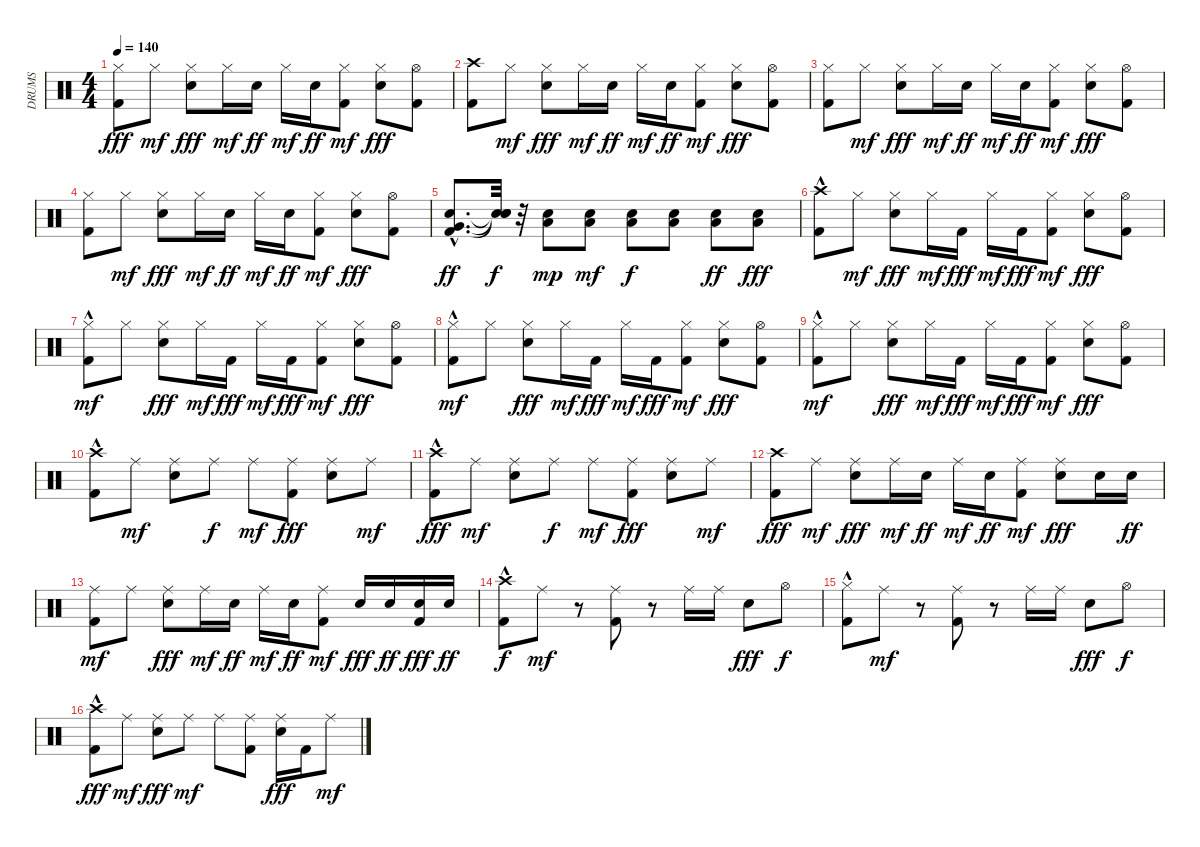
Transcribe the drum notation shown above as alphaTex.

\track ("DRUMS" "DRUMS") {instrument percussion}
\staff {score}
\articulation defaults
\ts (4 4)
\tempo 140
\clef neutral
\ks c
("Kick (hit) 2" "Hi-Hat (closed)").8{dy fff} "Hi-Hat (closed)".8{dy mf} ("Hi-Hat (closed)" "Electric Snare (hit)").8{dy fff} "Hi-Hat (closed)".16{dy mf} "Electric Snare (hit)".16{dy ff} "Hi-Hat (closed)".16{dy mf} "Electric Snare (hit)".16{dy ff} ("Kick (hit) 2" "Hi-Hat (closed)").8{dy mf} ("Hi-Hat (closed)" "Electric Snare (hit)").8{dy fff} ("Kick (hit) 2" "Hi-Hat (open)").8 |
("Kick (hit) 2" "Crash high (hit)").8 "Hi-Hat (closed)".8{dy mf} ("Hi-Hat (closed)" "Electric Snare (hit)").8{dy fff} "Hi-Hat (closed)".16{dy mf} "Electric Snare (hit)".16{dy ff} "Hi-Hat (closed)".16{dy mf} "Electric Snare (hit)".16{dy ff} ("Kick (hit) 2" "Hi-Hat (closed)").8{dy mf} ("Hi-Hat (closed)" "Electric Snare (hit)").8{dy fff} ("Kick (hit) 2" "Hi-Hat (open)").8 |
("Kick (hit) 2" "Hi-Hat (closed)").8 "Hi-Hat (closed)".8{dy mf} ("Hi-Hat (closed)" "Electric Snare (hit)").8{dy fff} "Hi-Hat (closed)".16{dy mf} "Electric Snare (hit)".16{dy ff} "Hi-Hat (closed)".16{dy mf} "Electric Snare (hit)".16{dy ff} ("Kick (hit) 2" "Hi-Hat (closed)").8{dy mf} ("Hi-Hat (closed)" "Electric Snare (hit)").8{dy fff} ("Kick (hit) 2" "Hi-Hat (open)").8 |
("Kick (hit) 2" "Hi-Hat (closed)").8 "Hi-Hat (closed)".8{dy mf} ("Hi-Hat (closed)" "Electric Snare (hit)").8{dy fff} "Hi-Hat (closed)".16{dy mf} "Electric Snare (hit)".16{dy ff} "Hi-Hat (closed)".16{dy mf} "Electric Snare (hit)".16{dy ff} ("Kick (hit) 2" "Hi-Hat (closed)").8{dy mf} ("Hi-Hat (closed)" "Electric Snare (hit)").8{dy fff} ("Kick (hit) 2" "Hi-Hat (open)").8 |
("Kick (hit) 2"{hac} "Electric Snare (hit)"{hac} "Very Low Tom (hit)"{hac}).8{d dy ff} ("Snare (hit)"{t} "Snare (hit)"{t} "Snare (hit)"{t}).32{dy f} r.32 ("Low Tom (hit)" "Electric Snare (hit)").8{dy mp} ("Low Tom (hit)" "Electric Snare (hit)").8{dy mf} ("Low Tom (hit)" "Electric Snare (hit)").8{dy f} ("Low Tom (hit)" "Electric Snare (hit)").8 ("Low Tom (hit)" "Electric Snare (hit)").8{dy ff} ("Low Tom (hit)" "Electric Snare (hit)").8{dy fff} |
("Kick (hit) 2"{hac} "Crash high (hit)").8 "Hi-Hat (closed)".8{dy mf} ("Electric Snare (hit)" "Hi-Hat (closed)").8{dy fff} "Hi-Hat (closed)".16{dy mf} "Kick (hit) 2".16{dy fff} "Hi-Hat (closed)".16{dy mf} "Kick (hit) 2".16{dy fff} ("Kick (hit) 2" "Hi-Hat (closed)").8{dy mf} ("Electric Snare (hit)" "Hi-Hat (closed)").8{dy fff} ("Kick (hit) 2" "Hi-Hat (open)").8 |
("Kick (hit) 2"{hac} "Hi-Hat (closed)").8{dy mf} "Hi-Hat (closed)".8 ("Electric Snare (hit)" "Hi-Hat (closed)").8{dy fff} "Hi-Hat (closed)".16{dy mf} "Kick (hit) 2".16{dy fff} "Hi-Hat (closed)".16{dy mf} "Kick (hit) 2".16{dy fff} ("Kick (hit) 2" "Hi-Hat (closed)").8{dy mf} ("Electric Snare (hit)" "Hi-Hat (closed)").8{dy fff} ("Kick (hit) 2" "Hi-Hat (open)").8 |
("Kick (hit) 2"{hac} "Hi-Hat (closed)").8{dy mf} "Hi-Hat (closed)".8 ("Electric Snare (hit)" "Hi-Hat (closed)").8{dy fff} "Hi-Hat (closed)".16{dy mf} "Kick (hit) 2".16{dy fff} "Hi-Hat (closed)".16{dy mf} "Kick (hit) 2".16{dy fff} ("Kick (hit) 2" "Hi-Hat (closed)").8{dy mf} ("Electric Snare (hit)" "Hi-Hat (closed)").8{dy fff} ("Kick (hit) 2" "Hi-Hat (open)").8 |
("Kick (hit) 2"{hac} "Hi-Hat (closed)").8{dy mf} "Hi-Hat (closed)".8 ("Electric Snare (hit)" "Hi-Hat (closed)").8{dy fff} "Hi-Hat (closed)".16{dy mf} "Kick (hit) 2".16{dy fff} "Hi-Hat (closed)".16{dy mf} "Kick (hit) 2".16{dy fff} ("Kick (hit) 2" "Hi-Hat (closed)").8{dy mf} ("Electric Snare (hit)" "Hi-Hat (closed)").8{dy fff} ("Kick (hit) 2" "Hi-Hat (open)").8 |
("Kick (hit) 2"{hac} "Crash high (hit)").8 "Ride (middle)".8{dy mf} ("Electric Snare (hit)" "Ride (middle)").8 "Ride (middle)".8{dy f} "Ride (middle)".8{dy mf} ("Ride (middle)" "Kick (hit) 2").8{dy fff} ("Electric Snare (hit)" "Ride (middle)").8 "Ride (middle)".8{dy mf} |
("Kick (hit) 2"{hac} "Crash high (hit)").8{dy fff} "Ride (middle)".8{dy mf} ("Electric Snare (hit)" "Ride (middle)").8 "Ride (middle)".8{dy f} "Ride (middle)".8{dy mf} ("Ride (middle)" "Kick (hit) 2").8{dy fff} ("Electric Snare (hit)" "Ride (middle)").8 "Ride (middle)".8{dy mf} |
("Kick (hit) 2" "Crash high (hit)").8{dy fff} "Ride (middle)".8{dy mf} ("Ride (middle)" "Electric Snare (hit)").8{dy fff} "Ride (middle)".16{dy mf} "Electric Snare (hit)".16{dy ff} "Ride (middle)".16{dy mf} "Electric Snare (hit)".16{dy ff} ("Kick (hit) 2" "Ride (middle)").8{dy mf} ("Ride (middle)" "Electric Snare (hit)").8{dy fff} "Electric Snare (hit)".16 "Electric Snare (hit)".16{dy ff} |
("Kick (hit) 2" "Ride (middle)").8{dy mf} "Ride (middle)".8 ("Ride (middle)" "Electric Snare (hit)").8{dy fff} "Ride (middle)".16{dy mf} "Electric Snare (hit)".16{dy ff} "Ride (middle)".16{dy mf} "Electric Snare (hit)".16{dy ff} ("Kick (hit) 2" "Ride (middle)").8{dy mf} "Electric Snare (hit)".16{dy fff} "Electric Snare (hit)".16{dy ff} ("Kick (hit) 2" "Electric Snare (hit)").16{dy fff} "Electric Snare (hit)".16{dy ff} |
("Kick (hit) 2"{hac} "Crash high (hit)").8{dy f} "Ride (middle)".8{dy mf} r.8 ("Kick (hit) 2" "Ride (middle)").8 r.8 "Ride (middle)".16 "Ride (middle)".16 "Electric Snare (hit)".8{dy fff} "Hi-Hat (open)".8{dy f} |
("Kick (hit) 2"{hac} "Hi-Hat (closed)").8 "Ride (middle)".8{dy mf} r.8 ("Kick (hit) 2" "Ride (middle)").8 r.8 "Ride (middle)".16 "Ride (middle)".16 "Electric Snare (hit)".8{dy fff} "Hi-Hat (open)".8{dy f} |
("Kick (hit) 2"{hac} "Crash high (hit)").8{dy fff} "Ride (middle)".8{dy mf} ("Electric Snare (hit)" "Ride (middle)").8{dy fff} "Ride (middle)".8{dy mf} "Ride (middle)".8 ("Kick (hit) 2" "Ride (middle)").8 ("Electric Snare (hit)" "Ride (middle)").16{dy fff} "Kick (hit) 2".16 "Ride (middle)".8{dy mf}
